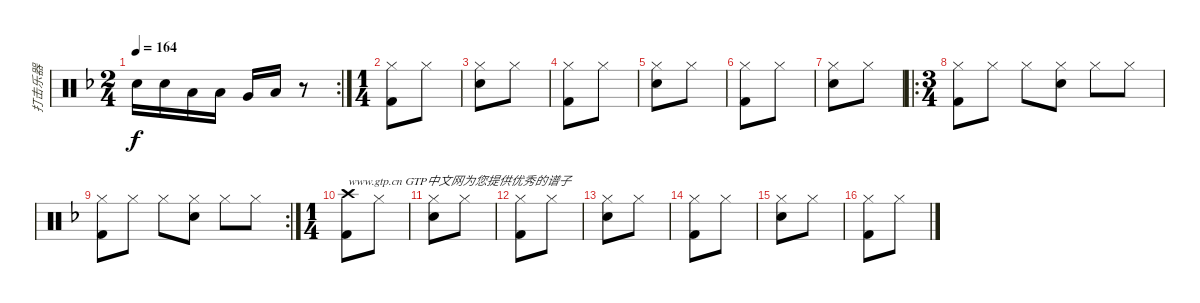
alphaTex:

\track ("打击乐器" "打击乐器") {instrument percussion}
\staff {score}
\articulation defaults
\rc 2
\ts (2 4)
\tempo 164
\clef neutral
\ks f "Snare (hit) 2".16{dy f} "Snare (hit) 2".16 "Low Tom (hit)".16 "Low Tom (hit)".16 "Very Low Tom (hit)".16 "Low Floor Tom (hit)".16
r.8 |
\ts (1 4)
("Hi-Hat (closed)" "Kick (hit) 2").8 "Hi-Hat (closed)".8 |
("Hi-Hat (closed)" "Snare (hit) 2").8 "Hi-Hat (closed)".8 |
("Hi-Hat (closed)" "Kick (hit) 2").8 "Hi-Hat (closed)".8 |
("Hi-Hat (closed)" "Snare (hit) 2").8 "Hi-Hat (closed)".8 |
("Hi-Hat (closed)" "Kick (hit) 2").8 "Hi-Hat (closed)".8 |
("Hi-Hat (closed)" "Snare (hit) 2").8 "Hi-Hat (closed)".8 |
\ro
\ts (3 4)
("Hi-Hat (closed)" "Kick (hit) 2").8 "Hi-Hat (closed)".8 "Hi-Hat (closed)".8 ("Hi-Hat (closed)" "Snare (hit) 2").8 "Hi-Hat (closed)".8 "Hi-Hat (closed)".8 |
\rc 2
("Hi-Hat (closed)" "Kick (hit) 2").8 "Hi-Hat (closed)".8 "Hi-Hat (closed)".8 ("Hi-Hat (closed)" "Snare (hit) 2").8 "Hi-Hat (closed)".8 "Hi-Hat (closed)".8 |
\ts (1 4)
("Crash high (hit)" "Kick (hit) 2").8{txt "www.gtp.cn GTP中文网为您提供优秀的谱子"} "Hi-Hat (closed)".8 |
("Hi-Hat (closed)" "Snare (hit) 2").8 "Hi-Hat (closed)".8 |
("Hi-Hat (closed)" "Kick (hit) 2").8 "Hi-Hat (closed)".8 |
("Hi-Hat (closed)" "Snare (hit) 2").8 "Hi-Hat (closed)".8 |
("Hi-Hat (closed)" "Kick (hit) 2").8 "Hi-Hat (closed)".8 |
("Hi-Hat (closed)" "Snare (hit) 2").8 "Hi-Hat (closed)".8 |
("Hi-Hat (closed)" "Kick (hit) 2").8 "Hi-Hat (closed)".8
